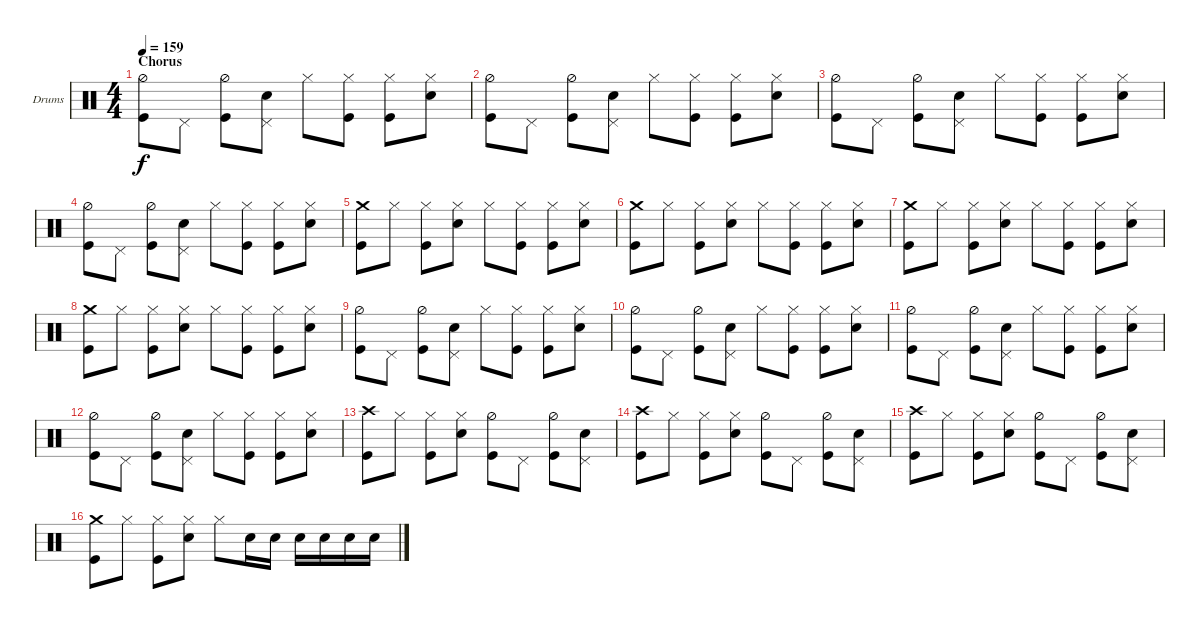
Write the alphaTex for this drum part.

\bracketExtendMode groupsimilarinstruments
\firstSystemTrackNameOrientation horizontal
\otherSystemsTrackNameOrientation horizontal
\track ("Fabrizio" "Drums") {instrument percussion}
\staff {score}
\articulation defaults
\ts (4 4)
\section ("" "Chorus")
\tempo 159
\clef neutral
\ks c
("Hi-Hat (half)" "Kick (hit)").8{dy f} "Pedal Hi-Hat (hit)".8 ("Hi-Hat (half)" "Kick (hit)").8 ("Pedal Hi-Hat (hit)" "Snare (hit) 2").8 "Hi-Hat (closed)".8 ("Kick (hit)" "Hi-Hat (closed)").8 ("Kick (hit)" "Hi-Hat (closed)").8 ("Snare (hit) 2" "Hi-Hat (closed)").8 |
("Hi-Hat (half)" "Kick (hit)").8 "Pedal Hi-Hat (hit)".8 ("Hi-Hat (half)" "Kick (hit)").8 ("Pedal Hi-Hat (hit)" "Snare (hit) 2").8 "Hi-Hat (closed)".8 ("Kick (hit)" "Hi-Hat (closed)").8 ("Kick (hit)" "Hi-Hat (closed)").8 ("Snare (hit) 2" "Hi-Hat (closed)").8 |
("Hi-Hat (half)" "Kick (hit)").8 "Pedal Hi-Hat (hit)".8 ("Hi-Hat (half)" "Kick (hit)").8 ("Pedal Hi-Hat (hit)" "Snare (hit) 2").8 "Hi-Hat (closed)".8 ("Kick (hit)" "Hi-Hat (closed)").8 ("Kick (hit)" "Hi-Hat (closed)").8 ("Snare (hit) 2" "Hi-Hat (closed)").8 |
("Hi-Hat (half)" "Kick (hit)").8 "Pedal Hi-Hat (hit)".8 ("Hi-Hat (half)" "Kick (hit)").8 ("Pedal Hi-Hat (hit)" "Snare (hit) 2").8 "Hi-Hat (closed)".8 ("Kick (hit)" "Hi-Hat (closed)").8 ("Kick (hit)" "Hi-Hat (closed)").8 ("Snare (hit) 2" "Hi-Hat (closed)").8 |
("Crash medium (hit)" "Kick (hit)").8 "Hi-Hat (closed)".8 ("Kick (hit)" "Hi-Hat (closed)").8 ("Snare (hit) 2" "Hi-Hat (closed)").8 "Hi-Hat (closed)".8 ("Kick (hit)" "Hi-Hat (closed)").8 ("Kick (hit)" "Hi-Hat (closed)").8 ("Snare (hit) 2" "Hi-Hat (closed)").8 |
("Crash medium (hit)" "Kick (hit)").8 "Hi-Hat (closed)".8 ("Kick (hit)" "Hi-Hat (closed)").8 ("Snare (hit) 2" "Hi-Hat (closed)").8 "Hi-Hat (closed)".8 ("Kick (hit)" "Hi-Hat (closed)").8 ("Kick (hit)" "Hi-Hat (closed)").8 ("Snare (hit) 2" "Hi-Hat (closed)").8 |
("Crash medium (hit)" "Kick (hit)").8 "Hi-Hat (closed)".8 ("Kick (hit)" "Hi-Hat (closed)").8 ("Snare (hit) 2" "Hi-Hat (closed)").8 "Hi-Hat (closed)".8 ("Kick (hit)" "Hi-Hat (closed)").8 ("Kick (hit)" "Hi-Hat (closed)").8 ("Snare (hit) 2" "Hi-Hat (closed)").8 |
("Crash medium (hit)" "Kick (hit)").8 "Hi-Hat (closed)".8 ("Kick (hit)" "Hi-Hat (closed)").8 ("Snare (hit) 2" "Hi-Hat (closed)").8 "Hi-Hat (closed)".8 ("Kick (hit)" "Hi-Hat (closed)").8 ("Kick (hit)" "Hi-Hat (closed)").8 ("Snare (hit) 2" "Hi-Hat (closed)").8 |
("Hi-Hat (half)" "Kick (hit)").8 "Pedal Hi-Hat (hit)".8 ("Hi-Hat (half)" "Kick (hit)").8 ("Pedal Hi-Hat (hit)" "Snare (hit) 2").8 "Hi-Hat (closed)".8 ("Kick (hit)" "Hi-Hat (closed)").8 ("Kick (hit)" "Hi-Hat (closed)").8 ("Snare (hit) 2" "Hi-Hat (closed)").8 |
("Hi-Hat (half)" "Kick (hit)").8 "Pedal Hi-Hat (hit)".8 ("Hi-Hat (half)" "Kick (hit)").8 ("Pedal Hi-Hat (hit)" "Snare (hit) 2").8 "Hi-Hat (closed)".8 ("Kick (hit)" "Hi-Hat (closed)").8 ("Kick (hit)" "Hi-Hat (closed)").8 ("Snare (hit) 2" "Hi-Hat (closed)").8 |
("Hi-Hat (half)" "Kick (hit)").8 "Pedal Hi-Hat (hit)".8 ("Hi-Hat (half)" "Kick (hit)").8 ("Pedal Hi-Hat (hit)" "Snare (hit) 2").8 "Hi-Hat (closed)".8 ("Kick (hit)" "Hi-Hat (closed)").8 ("Kick (hit)" "Hi-Hat (closed)").8 ("Snare (hit) 2" "Hi-Hat (closed)").8 |
("Hi-Hat (half)" "Kick (hit)").8 "Pedal Hi-Hat (hit)".8 ("Hi-Hat (half)" "Kick (hit)").8 ("Pedal Hi-Hat (hit)" "Snare (hit) 2").8 "Hi-Hat (closed)".8 ("Kick (hit)" "Hi-Hat (closed)").8 ("Kick (hit)" "Hi-Hat (closed)").8 ("Snare (hit) 2" "Hi-Hat (closed)").8 |
("Kick (hit)" "Crash high (hit)").8 "Hi-Hat (closed)".8 ("Hi-Hat (closed)" "Kick (hit)").8 ("Snare (hit) 2" "Hi-Hat (closed)").8 ("Hi-Hat (half)" "Kick (hit)").8 "Pedal Hi-Hat (hit)".8 ("Kick (hit)" "Hi-Hat (half)").8 ("Snare (hit) 2" "Pedal Hi-Hat (hit)").8 |
("Kick (hit)" "Crash high (hit)").8 "Hi-Hat (closed)".8 ("Hi-Hat (closed)" "Kick (hit)").8 ("Snare (hit) 2" "Hi-Hat (closed)").8 ("Hi-Hat (half)" "Kick (hit)").8 "Pedal Hi-Hat (hit)".8 ("Kick (hit)" "Hi-Hat (half)").8 ("Snare (hit) 2" "Pedal Hi-Hat (hit)").8 |
("Kick (hit)" "Crash high (hit)").8 "Hi-Hat (closed)".8 ("Hi-Hat (closed)" "Kick (hit)").8 ("Snare (hit) 2" "Hi-Hat (closed)").8 ("Hi-Hat (half)" "Kick (hit)").8 "Pedal Hi-Hat (hit)".8 ("Kick (hit)" "Hi-Hat (half)").8 ("Snare (hit) 2" "Pedal Hi-Hat (hit)").8 |
("Crash medium (hit)" "Kick (hit)").8 "Hi-Hat (closed)".8 ("Kick (hit)" "Hi-Hat (closed)").8 ("Snare (hit) 2" "Hi-Hat (closed)").8 "Hi-Hat (closed)".8 "Snare (hit) 2".16 "Snare (hit) 2".16 "Snare (hit) 2".16 "Snare (hit) 2".16 "Snare (hit) 2".16 "Snare (hit) 2".16
